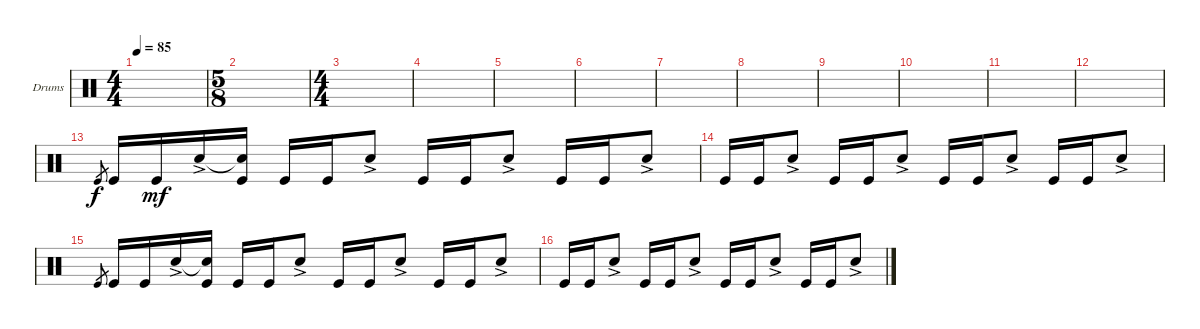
\defaultSystemsLayout 4
\bracketExtendMode groupsimilarinstruments
\firstSystemTrackNameOrientation horizontal
\otherSystemsTrackNameOrientation horizontal
\track ("Drumkit" "Drums") {instrument percussion}
\staff {score}
\articulation defaults
\ts (4 4)
\tempo 85
\clef neutral
\scale
0.333333
\ks c
|
\ts (5 8)
\scale
0.333333 |
\ts (4 4)
\scale
0.333333 |
\scale
0.333333 |
\scale
0.333333 |
\scale
0.333333 |
\scale
0.333333 |
\scale
0.333333 |
\scale
0.333333 |
\scale
0.333333 |
\scale
0.333333 |
\scale
0.333333 |
\scale
0.333333 "Kick (hit)".8{gr} "Kick (hit)".16 "Kick (hit)".16{dy mf} "Snare (hit) 2"{ac}.16 ("Snare (hit) 2"{t} "Kick (hit)").16 "Kick (hit)".16 "Kick (hit)".16 "Snare (hit) 2"{ac}.8 "Kick (hit)".16 "Kick (hit)".16 "Snare (hit) 2"{ac}.8 "Kick (hit)".16 "Kick (hit)".16 "Snare (hit) 2"{ac}.8 |
\scale
0.333333 "Kick (hit)".16 "Kick (hit)".16 "Snare (hit) 2"{ac}.8 "Kick (hit)".16 "Kick (hit)".16 "Snare (hit) 2"{ac}.8 "Kick (hit)".16 "Kick (hit)".16 "Snare (hit) 2"{ac}.8 "Kick (hit)".16 "Kick (hit)".16 "Snare (hit) 2"{ac}.8 |
\scale
0.333333 "Kick (hit)".8{gr} "Kick (hit)".16 "Kick (hit)".16 "Snare (hit) 2"{ac}.16 ("Snare (hit) 2"{t} "Kick (hit)").16 "Kick (hit)".16 "Kick (hit)".16 "Snare (hit) 2"{ac}.8 "Kick (hit)".16 "Kick (hit)".16 "Snare (hit) 2"{ac}.8 "Kick (hit)".16 "Kick (hit)".16 "Snare (hit) 2"{ac}.8 |
"Kick (hit)".16 "Kick (hit)".16 "Snare (hit) 2"{ac}.8 "Kick (hit)".16 "Kick (hit)".16 "Snare (hit) 2"{ac}.8 "Kick (hit)".16 "Kick (hit)".16 "Snare (hit) 2"{ac}.8 "Kick (hit)".16 "Kick (hit)".16 "Snare (hit) 2"{ac}.8
